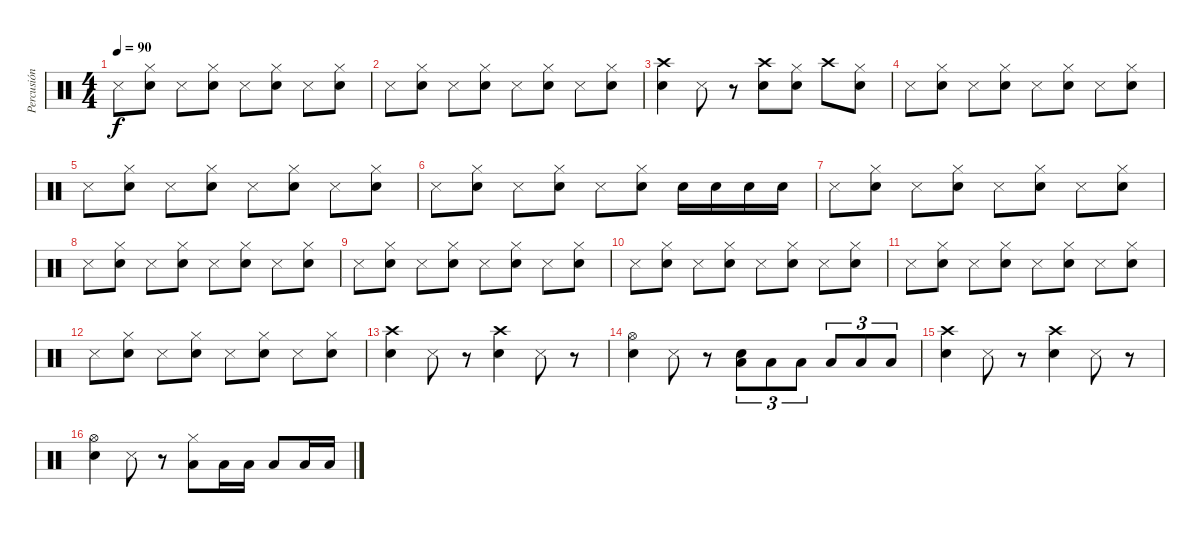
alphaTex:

\track ("Percusión" "Percusión") {instrument percussion}
\staff {score}
\articulation defaults
\ts (4 4)
\tempo 90
\clef neutral
\ks c "Snare (side stick) 3".8{dy f}
("Electric Snare (hit)" "Hi-Hat (closed)").8 "Snare (side stick) 3".8 ("Electric Snare (hit)" "Hi-Hat (closed)").8 "Snare (side stick) 3".8 ("Electric Snare (hit)" "Hi-Hat (closed)").8 "Snare (side stick) 3".8 ("Electric Snare (hit)" "Hi-Hat (closed)").8 |
"Snare (side stick) 3".8 ("Electric Snare (hit)" "Hi-Hat (closed)").8 "Snare (side stick) 3".8 ("Electric Snare (hit)" "Hi-Hat (closed)").8 "Snare (side stick) 3".8 ("Electric Snare (hit)" "Hi-Hat (closed)").8 "Snare (side stick) 3".8 ("Electric Snare (hit)" "Hi-Hat (closed)").8 |
("Crash high (hit)" "Electric Snare (hit)").4 "Snare (side stick) 3".8 r.8 ("Crash high (hit)" "Electric Snare (hit)").8 ("Electric Snare (hit)" "Hi-Hat (closed)").8 "Crash high (hit)".8 ("Electric Snare (hit)" "Hi-Hat (closed)").8 |
"Snare (side stick) 3".8 ("Electric Snare (hit)" "Hi-Hat (closed)").8 "Snare (side stick) 3".8 ("Electric Snare (hit)" "Hi-Hat (closed)").8 "Snare (side stick) 3".8 ("Electric Snare (hit)" "Hi-Hat (closed)").8 "Snare (side stick) 3".8 ("Electric Snare (hit)" "Hi-Hat (closed)").8 |
"Snare (side stick) 3".8 ("Electric Snare (hit)" "Hi-Hat (closed)").8 "Snare (side stick) 3".8 ("Electric Snare (hit)" "Hi-Hat (closed)").8 "Snare (side stick) 3".8 ("Electric Snare (hit)" "Hi-Hat (closed)").8 "Snare (side stick) 3".8 ("Electric Snare (hit)" "Hi-Hat (closed)").8 |
"Snare (side stick) 3".8 ("Electric Snare (hit)" "Hi-Hat (closed)").8 "Snare (side stick) 3".8 ("Electric Snare (hit)" "Hi-Hat (closed)").8 "Snare (side stick) 3".8 ("Electric Snare (hit)" "Hi-Hat (closed)").8 "Electric Snare (hit)".16 "Electric Snare (hit)".16 "Electric Snare (hit)".16 "Electric Snare (hit)".16 |
"Snare (side stick) 3".8 ("Electric Snare (hit)" "Hi-Hat (closed)").8 "Snare (side stick) 3".8 ("Electric Snare (hit)" "Hi-Hat (closed)").8 "Snare (side stick) 3".8 ("Electric Snare (hit)" "Hi-Hat (closed)").8 "Snare (side stick) 3".8 ("Electric Snare (hit)" "Hi-Hat (closed)").8 |
"Snare (side stick) 3".8 ("Electric Snare (hit)" "Hi-Hat (closed)").8 "Snare (side stick) 3".8 ("Electric Snare (hit)" "Hi-Hat (closed)").8 "Snare (side stick) 3".8 ("Electric Snare (hit)" "Hi-Hat (closed)").8 "Snare (side stick) 3".8 ("Electric Snare (hit)" "Hi-Hat (closed)").8 |
"Snare (side stick) 3".8 ("Electric Snare (hit)" "Hi-Hat (closed)").8 "Snare (side stick) 3".8 ("Electric Snare (hit)" "Hi-Hat (closed)").8 "Snare (side stick) 3".8 ("Electric Snare (hit)" "Hi-Hat (closed)").8 "Snare (side stick) 3".8 ("Electric Snare (hit)" "Hi-Hat (closed)").8 |
"Snare (side stick) 3".8 ("Electric Snare (hit)" "Hi-Hat (closed)").8 "Snare (side stick) 3".8 ("Electric Snare (hit)" "Hi-Hat (closed)").8 "Snare (side stick) 3".8 ("Electric Snare (hit)" "Hi-Hat (closed)").8 "Snare (side stick) 3".8 ("Electric Snare (hit)" "Hi-Hat (closed)").8 |
"Snare (side stick) 3".8 ("Electric Snare (hit)" "Hi-Hat (closed)").8 "Snare (side stick) 3".8 ("Electric Snare (hit)" "Hi-Hat (closed)").8 "Snare (side stick) 3".8 ("Electric Snare (hit)" "Hi-Hat (closed)").8 "Snare (side stick) 3".8 ("Electric Snare (hit)" "Hi-Hat (closed)").8 |
"Snare (side stick) 3".8 ("Electric Snare (hit)" "Hi-Hat (closed)").8 "Snare (side stick) 3".8 ("Electric Snare (hit)" "Hi-Hat (closed)").8 "Snare (side stick) 3".8 ("Electric Snare (hit)" "Hi-Hat (closed)").8 "Snare (side stick) 3".8 ("Electric Snare (hit)" "Hi-Hat (closed)").8 |
("Crash high (hit)" "Electric Snare (hit)").4 "Snare (side stick) 3".8 r.8 ("Crash high (hit)" "Electric Snare (hit)").4 "Snare (side stick) 3".8 r.8 |
("Hi-Hat (open)" "Electric Snare (hit)").4 "Snare (side stick) 3".8 r.8 ("Electric Snare (hit)" "Low Tom (hit)").8{tu (3 2)} "Low Tom (hit)".8{tu (3 2)} "Low Tom (hit)".8{tu (3 2)} "Low Tom (hit)".8{tu (3 2)} "Low Tom (hit)".8{tu (3 2)} "Low Tom (hit)".8{tu (3 2)} |
("Crash high (hit)" "Electric Snare (hit)").4 "Snare (side stick) 3".8 r.8 ("Crash high (hit)" "Electric Snare (hit)").4 "Snare (side stick) 3".8 r.8 |
("Hi-Hat (open)" "Electric Snare (hit)").4 "Snare (side stick) 3".8 r.8 ("Hi-Hat (closed)" "Low Tom (hit)").8 "Low Tom (hit)".16 "Low Tom (hit)".16 "Low Tom (hit)".8 "Low Tom (hit)".16 "Low Tom (hit)".16
